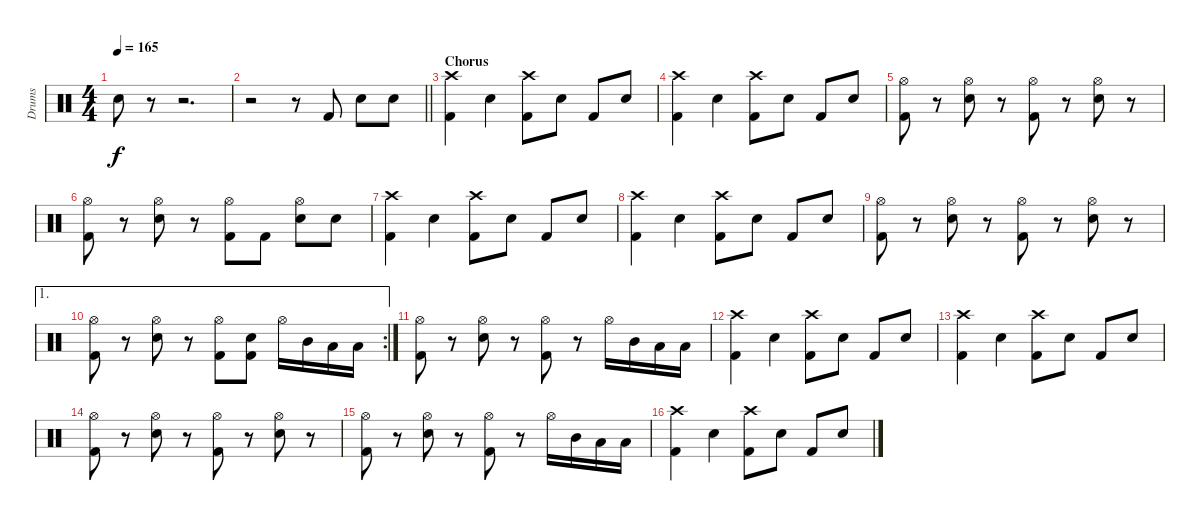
\track ("Drums" "Drums") {instrument percussion}
\staff {score}
\articulation defaults
\ts (4 4)
\tempo 165
\clef neutral
\ks c "Snare (hit) 2".8{dy f}
r.8 r.2{d} |
\barLineRight lightlight
r.2 r.8 "Kick (hit) 2".8 "Snare (hit) 2".8 "Snare (hit) 2".8 |
\section ("" "Chorus")
("Crash high (hit)" "Kick (hit) 2").4 "Snare (hit) 2".4 ("Crash high (hit)" "Kick (hit) 2").8 "Snare (hit) 2".8 "Kick (hit) 2".8 "Snare (hit) 2".8 |
("Crash high (hit)" "Kick (hit) 2").4 "Snare (hit) 2".4 ("Crash high (hit)" "Kick (hit) 2").8 "Snare (hit) 2".8 "Kick (hit) 2".8 "Snare (hit) 2".8 |
("Hi-Hat (open)" "Kick (hit) 2").8 r.8 ("Hi-Hat (open)" "Snare (hit) 2").8 r.8 ("Hi-Hat (open)" "Kick (hit) 2").8 r.8 ("Hi-Hat (open)" "Snare (hit) 2").8 r.8 |
("Hi-Hat (open)" "Kick (hit) 2").8 r.8 ("Hi-Hat (open)" "Snare (hit) 2").8 r.8 ("Hi-Hat (open)" "Kick (hit) 2").8 "Kick (hit) 2".8 ("Hi-Hat (open)" "Snare (hit) 2").8 "Snare (hit) 2".8 |
("Crash high (hit)" "Kick (hit) 2").4 "Snare (hit) 2".4 ("Crash high (hit)" "Kick (hit) 2").8 "Snare (hit) 2".8 "Kick (hit) 2".8 "Snare (hit) 2".8 |
("Crash high (hit)" "Kick (hit) 2").4 "Snare (hit) 2".4 ("Crash high (hit)" "Kick (hit) 2").8 "Snare (hit) 2".8 "Kick (hit) 2".8 "Snare (hit) 2".8 |
("Hi-Hat (open)" "Kick (hit) 2").8 r.8 ("Hi-Hat (open)" "Snare (hit) 2").8 r.8 ("Hi-Hat (open)" "Kick (hit) 2").8 r.8 ("Hi-Hat (open)" "Snare (hit) 2").8 r.8 |
\ae 1
\rc 2
("Hi-Hat (open)" "Kick (hit) 2").8 r.8 ("Hi-Hat (open)" "Snare (hit) 2").8 r.8 ("Hi-Hat (open)" "Kick (hit) 2").8 ("Snare (hit) 2" "Kick (hit) 2").8 "Hi-Hat (open)".16 "Mid Tom (hit)".16 "Low Tom (hit)".16 "Low Floor Tom (hit)".16 |
("Hi-Hat (open)" "Kick (hit) 2").8 r.8 ("Hi-Hat (open)" "Snare (hit) 2").8 r.8 ("Hi-Hat (open)" "Kick (hit) 2").8 r.8 "Hi-Hat (open)".16 "Mid Tom (hit)".16 "Low Tom (hit)".16 "Low Floor Tom (hit)".16 |
("Crash high (hit)" "Kick (hit) 2").4 "Snare (hit) 2".4 ("Crash high (hit)" "Kick (hit) 2").8 "Snare (hit) 2".8 "Kick (hit) 2".8 "Snare (hit) 2".8 |
("Crash high (hit)" "Kick (hit) 2").4 "Snare (hit) 2".4 ("Crash high (hit)" "Kick (hit) 2").8 "Snare (hit) 2".8 "Kick (hit) 2".8 "Snare (hit) 2".8 |
("Hi-Hat (open)" "Kick (hit) 2").8 r.8 ("Hi-Hat (open)" "Snare (hit) 2").8 r.8 ("Hi-Hat (open)" "Kick (hit) 2").8 r.8 ("Hi-Hat (open)" "Snare (hit) 2").8 r.8 |
("Hi-Hat (open)" "Kick (hit) 2").8 r.8 ("Hi-Hat (open)" "Snare (hit) 2").8 r.8 ("Hi-Hat (open)" "Kick (hit) 2").8 r.8 "Hi-Hat (open)".16 "Mid Tom (hit)".16 "Low Tom (hit)".16 "Low Floor Tom (hit)".16 |
("Crash high (hit)" "Kick (hit) 2").4 "Snare (hit) 2".4 ("Crash high (hit)" "Kick (hit) 2").8 "Snare (hit) 2".8 "Kick (hit) 2".8 "Snare (hit) 2".8
